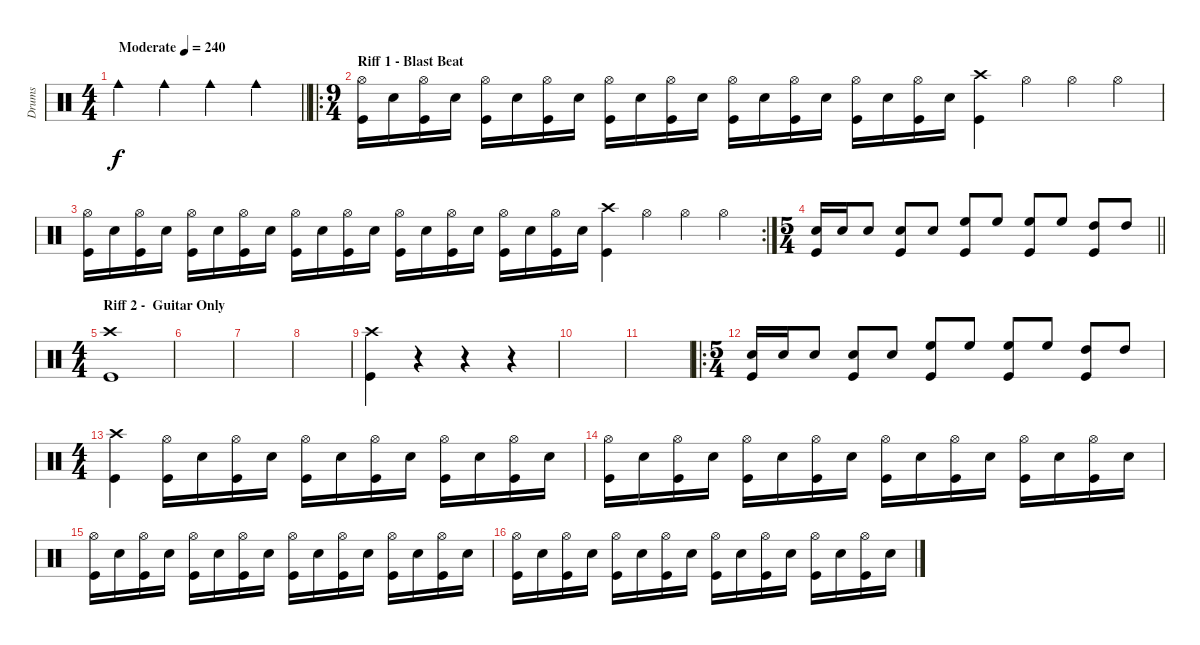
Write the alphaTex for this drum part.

\track ("Drums " "Drums ") {instrument percussion}
\staff {score}
\articulation defaults
\ts (4 4)
\tempo (240 "Moderate")
\clef neutral
\barLineRight lightlight
\ks c "Cowbell medium (hit)".4{dy f} "Cowbell medium (hit)".4 "Cowbell medium (hit)".4 "Cowbell medium (hit)".4
|
\ro
\ts (9 4)
\section ("" "Riff 1 - Blast Beat")
("Hi-Hat (open)" "Kick (hit)").16 "Electric Snare (hit)".16 ("Hi-Hat (open)" "Kick (hit)").16 "Electric Snare (hit)".16 ("Hi-Hat (open)" "Kick (hit)").16 "Electric Snare (hit)".16 ("Hi-Hat (open)" "Kick (hit)").16 "Electric Snare (hit)".16 ("Hi-Hat (open)" "Kick (hit)").16 "Electric Snare (hit)".16 ("Hi-Hat (open)" "Kick (hit)").16 "Electric Snare (hit)".16 ("Hi-Hat (open)" "Kick (hit)").16 "Electric Snare (hit)".16 ("Hi-Hat (open)" "Kick (hit)").16 "Electric Snare (hit)".16 ("Hi-Hat (open)" "Kick (hit)").16 "Electric Snare (hit)".16 ("Hi-Hat (open)" "Kick (hit)").16 "Electric Snare (hit)".16 ("Crash high (hit)" "Kick (hit)").4 "Hi-Hat (open)".4 "Hi-Hat (open)".4 "Hi-Hat (open)".4 |
\rc 2
("Hi-Hat (open)" "Kick (hit)").16 "Electric Snare (hit)".16 ("Hi-Hat (open)" "Kick (hit)").16 "Electric Snare (hit)".16 ("Hi-Hat (open)" "Kick (hit)").16 "Electric Snare (hit)".16 ("Hi-Hat (open)" "Kick (hit)").16 "Electric Snare (hit)".16 ("Hi-Hat (open)" "Kick (hit)").16 "Electric Snare (hit)".16 ("Hi-Hat (open)" "Kick (hit)").16 "Electric Snare (hit)".16 ("Hi-Hat (open)" "Kick (hit)").16 "Electric Snare (hit)".16 ("Hi-Hat (open)" "Kick (hit)").16 "Electric Snare (hit)".16 ("Hi-Hat (open)" "Kick (hit)").16 "Electric Snare (hit)".16 ("Hi-Hat (open)" "Kick (hit)").16 "Electric Snare (hit)".16 ("Crash high (hit)" "Kick (hit)").4 "Hi-Hat (open)".4 "Hi-Hat (open)".4 "Hi-Hat (open)".4 |
\ts (5 4)
\barLineRight lightlight
("Electric Snare (hit)" "Kick (hit)").16 "Electric Snare (hit)".16 "Electric Snare (hit)".8 ("Electric Snare (hit)" "Kick (hit)").8 "Electric Snare (hit)".8 ("High Floor Tom (hit)" "Kick (hit)").8 "High Floor Tom (hit)".8 ("High Floor Tom (hit)" "Kick (hit)").8 "High Floor Tom (hit)".8 ("High Tom (hit)" "Kick (hit)").8 "High Tom (hit)".8 |
\ts (4 4)
\section ("" "Riff 2 -  Guitar Only")
("Crash high (hit)" "Kick (hit)").1 |
|
|
|
("Crash high (hit)" "Kick (hit)").4 r.4 r.4 r.4 |
|
|
\ro
\ts (5 4)
("Electric Snare (hit)" "Kick (hit)").16 "Electric Snare (hit)".16 "Electric Snare (hit)".8 ("Electric Snare (hit)" "Kick (hit)").8 "Electric Snare (hit)".8 ("High Floor Tom (hit)" "Kick (hit)").8 "High Floor Tom (hit)".8 ("High Floor Tom (hit)" "Kick (hit)").8 "High Floor Tom (hit)".8 ("High Tom (hit)" "Kick (hit)").8 "High Tom (hit)".8 |
\ts (4 4)
("Crash high (hit)" "Kick (hit)").4 ("Hi-Hat (open)" "Kick (hit)").16 "Electric Snare (hit)".16 ("Hi-Hat (open)" "Kick (hit)").16 "Electric Snare (hit)".16 ("Hi-Hat (open)" "Kick (hit)").16 "Electric Snare (hit)".16 ("Hi-Hat (open)" "Kick (hit)").16 "Electric Snare (hit)".16 ("Hi-Hat (open)" "Kick (hit)").16 "Electric Snare (hit)".16 ("Hi-Hat (open)" "Kick (hit)").16 "Electric Snare (hit)".16 |
("Hi-Hat (open)" "Kick (hit)").16 "Electric Snare (hit)".16 ("Hi-Hat (open)" "Kick (hit)").16 "Electric Snare (hit)".16 ("Hi-Hat (open)" "Kick (hit)").16 "Electric Snare (hit)".16 ("Hi-Hat (open)" "Kick (hit)").16 "Electric Snare (hit)".16 ("Hi-Hat (open)" "Kick (hit)").16 "Electric Snare (hit)".16 ("Hi-Hat (open)" "Kick (hit)").16 "Electric Snare (hit)".16 ("Hi-Hat (open)" "Kick (hit)").16 "Electric Snare (hit)".16 ("Hi-Hat (open)" "Kick (hit)").16 "Electric Snare (hit)".16 |
("Hi-Hat (open)" "Kick (hit)").16 "Electric Snare (hit)".16 ("Hi-Hat (open)" "Kick (hit)").16 "Electric Snare (hit)".16 ("Hi-Hat (open)" "Kick (hit)").16 "Electric Snare (hit)".16 ("Hi-Hat (open)" "Kick (hit)").16 "Electric Snare (hit)".16 ("Hi-Hat (open)" "Kick (hit)").16 "Electric Snare (hit)".16 ("Hi-Hat (open)" "Kick (hit)").16 "Electric Snare (hit)".16 ("Hi-Hat (open)" "Kick (hit)").16 "Electric Snare (hit)".16 ("Hi-Hat (open)" "Kick (hit)").16 "Electric Snare (hit)".16 |
("Hi-Hat (open)" "Kick (hit)").16 "Electric Snare (hit)".16 ("Hi-Hat (open)" "Kick (hit)").16 "Electric Snare (hit)".16 ("Hi-Hat (open)" "Kick (hit)").16 "Electric Snare (hit)".16 ("Hi-Hat (open)" "Kick (hit)").16 "Electric Snare (hit)".16 ("Hi-Hat (open)" "Kick (hit)").16 "Electric Snare (hit)".16 ("Hi-Hat (open)" "Kick (hit)").16 "Electric Snare (hit)".16 ("Hi-Hat (open)" "Kick (hit)").16 "Electric Snare (hit)".16 ("Hi-Hat (open)" "Kick (hit)").16 "Electric Snare (hit)".16
